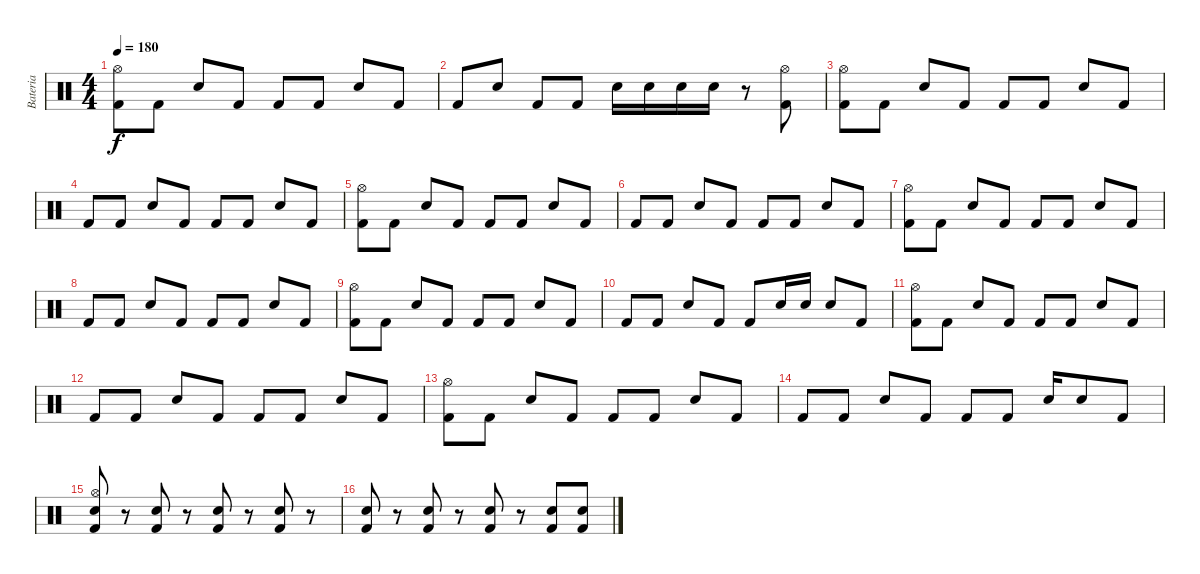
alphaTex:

\track ("Bateria" "Bateria") {instrument percussion}
\staff {score}
\articulation defaults
\ts (4 4)
\tempo 180
\clef neutral
\ks c
("Kick (hit) 2" "Hi-Hat (open)").8{dy f} "Kick (hit) 2".8 "Electric Snare (hit)".8 "Kick (hit) 2".8 "Kick (hit) 2".8 "Kick (hit) 2".8 "Electric Snare (hit)".8 "Kick (hit) 2".8 |
"Kick (hit) 2".8 "Electric Snare (hit)".8 "Kick (hit) 2".8 "Kick (hit) 2".8 "Electric Snare (hit)".16 "Electric Snare (hit)".16 "Electric Snare (hit)".16 "Electric Snare (hit)".16 r.8 ("Kick (hit) 2" "Hi-Hat (open)").8 |
("Kick (hit) 2" "Hi-Hat (open)").8 "Kick (hit) 2".8 "Electric Snare (hit)".8 "Kick (hit) 2".8 "Kick (hit) 2".8 "Kick (hit) 2".8 "Electric Snare (hit)".8 "Kick (hit) 2".8 |
"Kick (hit) 2".8 "Kick (hit) 2".8 "Electric Snare (hit)".8 "Kick (hit) 2".8 "Kick (hit) 2".8 "Kick (hit) 2".8 "Electric Snare (hit)".8 "Kick (hit) 2".8 |
("Kick (hit) 2" "Hi-Hat (open)").8 "Kick (hit) 2".8 "Electric Snare (hit)".8 "Kick (hit) 2".8 "Kick (hit) 2".8 "Kick (hit) 2".8 "Electric Snare (hit)".8 "Kick (hit) 2".8 |
"Kick (hit) 2".8 "Kick (hit) 2".8 "Electric Snare (hit)".8 "Kick (hit) 2".8 "Kick (hit) 2".8 "Kick (hit) 2".8 "Electric Snare (hit)".8 "Kick (hit) 2".8 |
("Kick (hit) 2" "Hi-Hat (open)").8 "Kick (hit) 2".8 "Electric Snare (hit)".8 "Kick (hit) 2".8 "Kick (hit) 2".8 "Kick (hit) 2".8 "Electric Snare (hit)".8 "Kick (hit) 2".8 |
"Kick (hit) 2".8 "Kick (hit) 2".8 "Electric Snare (hit)".8 "Kick (hit) 2".8 "Kick (hit) 2".8 "Kick (hit) 2".8 "Electric Snare (hit)".8 "Kick (hit) 2".8 |
("Kick (hit) 2" "Hi-Hat (open)").8 "Kick (hit) 2".8 "Electric Snare (hit)".8 "Kick (hit) 2".8 "Kick (hit) 2".8 "Kick (hit) 2".8 "Electric Snare (hit)".8 "Kick (hit) 2".8 |
"Kick (hit) 2".8 "Kick (hit) 2".8 "Electric Snare (hit)".8 "Kick (hit) 2".8 "Kick (hit) 2".8 "Electric Snare (hit)".16 "Electric Snare (hit)".16 "Electric Snare (hit)".8 "Kick (hit) 2".8 |
("Kick (hit) 2" "Hi-Hat (open)").8 "Kick (hit) 2".8 "Electric Snare (hit)".8 "Kick (hit) 2".8 "Kick (hit) 2".8 "Kick (hit) 2".8 "Electric Snare (hit)".8 "Kick (hit) 2".8 |
"Kick (hit) 2".8 "Kick (hit) 2".8 "Electric Snare (hit)".8 "Kick (hit) 2".8 "Kick (hit) 2".8 "Kick (hit) 2".8 "Electric Snare (hit)".8 "Kick (hit) 2".8 |
("Kick (hit) 2" "Hi-Hat (open)").8 "Kick (hit) 2".8 "Electric Snare (hit)".8 "Kick (hit) 2".8 "Kick (hit) 2".8 "Kick (hit) 2".8 "Electric Snare (hit)".8 "Kick (hit) 2".8 |
"Kick (hit) 2".8 "Kick (hit) 2".8 "Electric Snare (hit)".8 "Kick (hit) 2".8 "Kick (hit) 2".8 "Kick (hit) 2".8 "Electric Snare (hit)".16 "Electric Snare (hit)".8 "Kick (hit) 2".8 |
("Kick (hit) 2" "Electric Snare (hit)" "Hi-Hat (open)").8 r.8 ("Kick (hit) 2" "Electric Snare (hit)").8 r.8 ("Kick (hit) 2" "Electric Snare (hit)").8 r.8 ("Kick (hit) 2" "Electric Snare (hit)").8 r.8 |
("Kick (hit) 2" "Electric Snare (hit)").8 r.8 ("Kick (hit) 2" "Electric Snare (hit)").8 r.8 ("Kick (hit) 2" "Electric Snare (hit)").8 r.8 ("Kick (hit) 2" "Electric Snare (hit)").8 ("Kick (hit) 2" "Electric Snare (hit)").8
